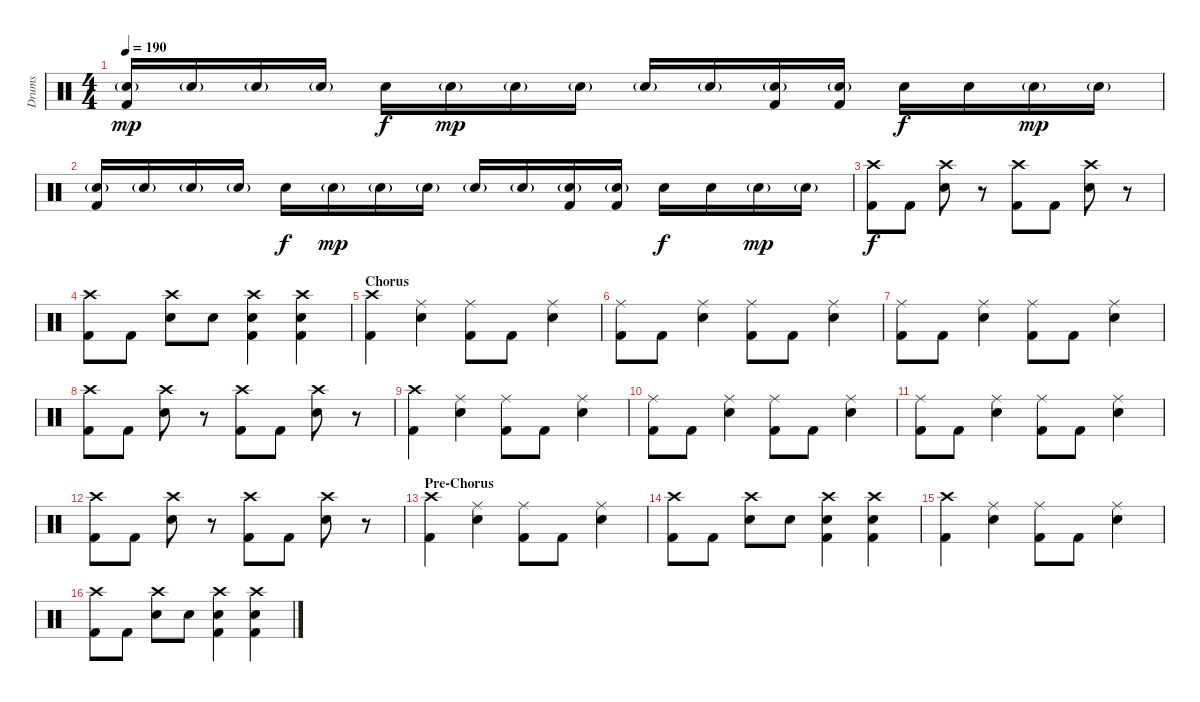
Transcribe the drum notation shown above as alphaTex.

\track ("Drums" "Drums") {instrument percussion}
\staff {score}
\articulation defaults
\ts (4 4)
\tempo 190
\clef neutral
\ks c
("Snare (hit) 2"{g} "Kick (hit) 2").16{dy mp} "Snare (hit) 2"{g}.16 "Snare (hit) 2"{g}.16 "Snare (hit) 2"{g}.16 "Snare (hit) 2".16{dy f} "Snare (hit) 2"{g}.16{dy mp} "Snare (hit) 2"{g}.16 "Snare (hit) 2"{g}.16 "Snare (hit) 2"{g}.16 "Snare (hit) 2"{g}.16 ("Snare (hit) 2"{g} "Kick (hit) 2").16 ("Snare (hit) 2"{g} "Kick (hit) 2").16 "Snare (hit) 2".16{dy f} "Snare (hit) 2".16 "Snare (hit) 2"{g}.16{dy mp} "Snare (hit) 2"{g}.16 |
("Snare (hit) 2"{g} "Kick (hit) 2").16 "Snare (hit) 2"{g}.16 "Snare (hit) 2"{g}.16 "Snare (hit) 2"{g}.16 "Snare (hit) 2".16{dy f} "Snare (hit) 2"{g}.16{dy mp} "Snare (hit) 2"{g}.16 "Snare (hit) 2"{g}.16 "Snare (hit) 2"{g}.16 "Snare (hit) 2"{g}.16 ("Snare (hit) 2"{g} "Kick (hit) 2").16 ("Snare (hit) 2"{g} "Kick (hit) 2").16 "Snare (hit) 2".16{dy f} "Snare (hit) 2".16 "Snare (hit) 2"{g}.16{dy mp} "Snare (hit) 2"{g}.16 |
("Crash high (hit)" "Kick (hit) 2").8{dy f} "Kick (hit) 2".8 ("Crash high (hit)" "Snare (hit) 2").8 r.8 ("Crash high (hit)" "Kick (hit) 2").8 "Kick (hit) 2".8 ("Crash high (hit)" "Snare (hit) 2").8 r.8 |
("Crash high (hit)" "Kick (hit) 2").8 "Kick (hit) 2".8 ("Crash high (hit)" "Snare (hit) 2").8 "Snare (hit) 2".8 ("Crash high (hit)" "Snare (hit) 2" "Kick (hit) 2").4 ("Crash high (hit)" "Snare (hit) 2" "Kick (hit) 2").4 |
\section ("" "Chorus")
("Crash high (hit)" "Kick (hit) 2").4 ("Ride (middle)" "Snare (hit) 2").4 ("Ride (middle)" "Kick (hit) 2").8 "Kick (hit) 2".8 ("Ride (middle)" "Snare (hit) 2").4 |
("Ride (middle)" "Kick (hit) 2").8 "Kick (hit) 2".8 ("Ride (middle)" "Snare (hit) 2").4 ("Ride (middle)" "Kick (hit) 2").8 "Kick (hit) 2".8 ("Ride (middle)" "Snare (hit) 2").4 |
("Ride (middle)" "Kick (hit) 2").8 "Kick (hit) 2".8 ("Ride (middle)" "Snare (hit) 2").4 ("Ride (middle)" "Kick (hit) 2").8 "Kick (hit) 2".8 ("Ride (middle)" "Snare (hit) 2").4 |
("Crash high (hit)" "Kick (hit) 2").8 "Kick (hit) 2".8 ("Crash high (hit)" "Snare (hit) 2").8 r.8 ("Crash high (hit)" "Kick (hit) 2").8 "Kick (hit) 2".8 ("Crash high (hit)" "Snare (hit) 2").8 r.8 |
("Crash high (hit)" "Kick (hit) 2").4 ("Ride (middle)" "Snare (hit) 2").4 ("Ride (middle)" "Kick (hit) 2").8 "Kick (hit) 2".8 ("Ride (middle)" "Snare (hit) 2").4 |
("Ride (middle)" "Kick (hit) 2").8 "Kick (hit) 2".8 ("Ride (middle)" "Snare (hit) 2").4 ("Ride (middle)" "Kick (hit) 2").8 "Kick (hit) 2".8 ("Ride (middle)" "Snare (hit) 2").4 |
("Ride (middle)" "Kick (hit) 2").8 "Kick (hit) 2".8 ("Ride (middle)" "Snare (hit) 2").4 ("Ride (middle)" "Kick (hit) 2").8 "Kick (hit) 2".8 ("Ride (middle)" "Snare (hit) 2").4 |
("Crash high (hit)" "Kick (hit) 2").8 "Kick (hit) 2".8 ("Crash high (hit)" "Snare (hit) 2").8 r.8 ("Crash high (hit)" "Kick (hit) 2").8 "Kick (hit) 2".8 ("Crash high (hit)" "Snare (hit) 2").8 r.8 |
\section ("" "Pre-Chorus")
("Crash high (hit)" "Kick (hit) 2").4 ("Ride (middle)" "Snare (hit) 2").4 ("Ride (middle)" "Kick (hit) 2").8 "Kick (hit) 2".8 ("Ride (middle)" "Snare (hit) 2").4 |
("Crash high (hit)" "Kick (hit) 2").8 "Kick (hit) 2".8 ("Crash high (hit)" "Snare (hit) 2").8 "Snare (hit) 2".8 ("Crash high (hit)" "Snare (hit) 2" "Kick (hit) 2").4 ("Crash high (hit)" "Snare (hit) 2" "Kick (hit) 2").4 |
("Crash high (hit)" "Kick (hit) 2").4 ("Ride (middle)" "Snare (hit) 2").4 ("Ride (middle)" "Kick (hit) 2").8 "Kick (hit) 2".8 ("Ride (middle)" "Snare (hit) 2").4 |
("Crash high (hit)" "Kick (hit) 2").8 "Kick (hit) 2".8 ("Crash high (hit)" "Snare (hit) 2").8 "Snare (hit) 2".8 ("Crash high (hit)" "Snare (hit) 2" "Kick (hit) 2").4 ("Crash high (hit)" "Snare (hit) 2" "Kick (hit) 2").4
